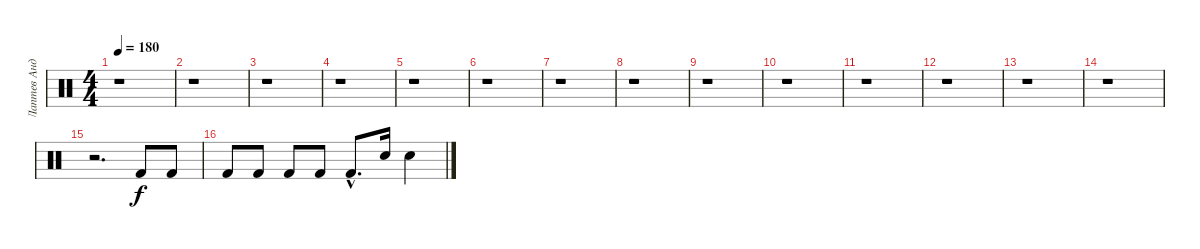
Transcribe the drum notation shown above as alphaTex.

\track ("Лаптев Андрей" "Лаптев Анд") {instrument percussion}
\staff {score}
\articulation defaults
\ts (4 4)
\tempo 180
\clef neutral
\ks c
r.1{dy f} |
r.1 |
r.1 |
r.1 |
r.1 |
r.1 |
r.1 |
r.1 |
r.1 |
r.1 |
r.1 |
r.1 |
r.1 |
r.1 |
r.2{d} "Kick (hit) 2".8 "Kick (hit) 2".8 |
"Kick (hit) 2".8 "Kick (hit) 2".8 "Kick (hit) 2".8 "Kick (hit) 2".8 "Kick (hit) 2"{hac}.8{d} "Snare (hit) 2".16 "Snare (hit) 2".4
